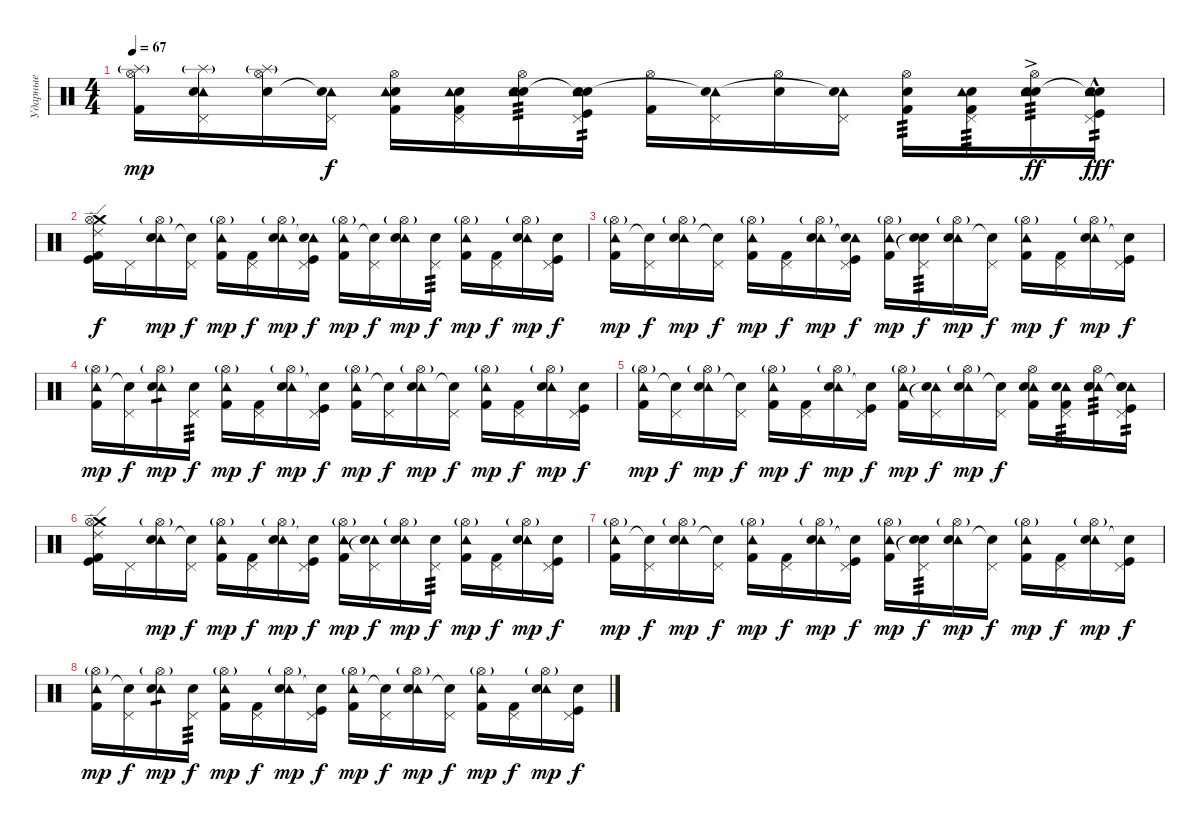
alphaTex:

\track ("Ударные" "Ударные") {instrument percussion}
\staff {score}
\articulation defaults
\ts (4 4)
\tempo 67
\clef neutral
\ks c
("Hi-Hat (open)" "Splash (hit)"{g} "Kick (hit) 2").16{dy mp} ("Pedal Hi-Hat (hit)" "Tambourine (hit)" "Splash (hit)"{g} "Snare (hit)"{t}).16 ("Hi-Hat (open)" "Splash (hit)"{g} "Snare (hit) 2").16 ("Pedal Hi-Hat (hit)" "Tambourine (hit)" "Snare (hit) 2"{t}).16{dy f} ("Hi-Hat (open)" "Snare (hit) 2" "Tambourine (hit)" "Kick (hit) 2").16 ("Pedal Hi-Hat (hit)" "Snare (hit) 2" "Tambourine (hit)" "Kick (hit) 2").16 ("Hi-Hat (open)" "Snare (hit) 2" "Tambourine (hit)" "Snare (hit) 2").16{tp 3} ("Pedal Hi-Hat (hit)" "Snare (hit) 2" "Tambourine (hit)" "Snare (hit) 2"{t} "Kick (hit)").16{tp 2} ("Hi-Hat (open)" "Kick (hit) 2").16 ("Pedal Hi-Hat (hit)" "Tambourine (hit)" "Snare (hit)"{t}).16 ("Hi-Hat (open)" "Snare (hit) 2").16 ("Pedal Hi-Hat (hit)" "Tambourine (hit)" "Snare (hit) 2"{t}).16 ("Hi-Hat (open)" "Electric Snare (hit)" "Kick (hit) 2").16{tp 3} ("Pedal Hi-Hat (hit)" "Electric Snare (hit)" "Tambourine (hit)" "Kick (hit) 2").16{tp 3} ("Hi-Hat (open)" "Electric Snare (hit)"{ac} "Tambourine (hit)" "Snare (hit) 2").16{tp 3 dy ff} ("Pedal Hi-Hat (hit)" "Electric Snare (hit)"{hac} "Tambourine (hit)" "Snare (hit) 2"{t} "Kick (hit)").16{tp 2 dy fff} |
("Crash medium (hit)" "Kick (hit) 2" "Kick (hit)" "Ride (edge) 2" "Hi-Hat (open)").16{dy f} "Pedal Hi-Hat (hit)".16 ("Hi-Hat (open)"{g} "Tambourine (hit)" "Snare (hit) 2").16{dy mp} ("Pedal Hi-Hat (hit)" "Snare (hit) 2"{t}).16{dy f} ("Hi-Hat (open)"{g} "Tambourine (hit)" "Kick (hit) 2").16{dy mp} ("Pedal Hi-Hat (hit)" "Kick (hit) 2").16{dy f} ("Hi-Hat (open)"{g} "Tambourine (hit)" "Snare (hit) 2").16{dy mp} ("Pedal Hi-Hat (hit)" "Tambourine (hit)" "Snare (hit) 2"{t} "Kick (hit)").16{dy f} ("Hi-Hat (open)"{g} "Tambourine (hit)" "Kick (hit) 2").16{dy mp} ("Pedal Hi-Hat (hit)" "Snare (hit)"{t}).16{dy f} ("Hi-Hat (open)"{g} "Tambourine (hit)" "Snare (hit) 2").16{dy mp} ("Pedal Hi-Hat (hit)" "Snare (hit) 2").16{tp 3 dy f} ("Hi-Hat (open)"{g} "Tambourine (hit)" "Kick (hit) 2").16{dy mp} ("Pedal Hi-Hat (hit)" "Kick (hit) 2").16{dy f} ("Hi-Hat (open)"{g} "Tambourine (hit)" "Snare (hit) 2").16{dy mp} ("Pedal Hi-Hat (hit)" "Snare (hit) 2" "Kick (hit)").16{dy f} |
("Hi-Hat (open)"{g} "Tambourine (hit)" "Kick (hit) 2").16{dy mp} ("Pedal Hi-Hat (hit)" "Snare (hit)"{t}).16{dy f} ("Hi-Hat (open)"{g} "Tambourine (hit)" "Snare (hit) 2").16{dy mp} ("Pedal Hi-Hat (hit)" "Snare (hit) 2"{t}).16{dy f} ("Hi-Hat (open)"{g} "Tambourine (hit)" "Kick (hit) 2").16{dy mp} ("Pedal Hi-Hat (hit)" "Kick (hit) 2").16{dy f} ("Hi-Hat (open)"{g} "Tambourine (hit)" "Snare (hit) 2").16{dy mp} ("Pedal Hi-Hat (hit)" "Tambourine (hit)" "Snare (hit) 2"{t} "Kick (hit)").16{dy f} ("Hi-Hat (open)"{g} "Tambourine (hit)" "Kick (hit) 2").16{dy mp} ("Pedal Hi-Hat (hit)" "Snare (hit) 2" "Snare (hit)"{t}).16{tp 3 dy f} ("Hi-Hat (open)"{g} "Tambourine (hit)" "Snare (hit) 2").16{dy mp} ("Pedal Hi-Hat (hit)" "Snare (hit) 2"{t}).16{dy f} ("Hi-Hat (open)"{g} "Tambourine (hit)" "Kick (hit) 2").16{dy mp} ("Pedal Hi-Hat (hit)" "Kick (hit) 2").16{dy f} ("Hi-Hat (open)"{g} "Tambourine (hit)" "Snare (hit) 2").16{dy mp} ("Pedal Hi-Hat (hit)" "Snare (hit) 2"{t} "Kick (hit)").16{dy f} |
("Hi-Hat (open)"{g} "Tambourine (hit)" "Kick (hit) 2").16{dy mp} ("Pedal Hi-Hat (hit)" "Snare (hit)"{t}).16{dy f} ("Hi-Hat (open)"{g} "Tambourine (hit)" "Snare (hit) 2").16{tp 1 dy mp} ("Pedal Hi-Hat (hit)" "Snare (hit) 2").16{tp 3 dy f} ("Hi-Hat (open)"{g} "Tambourine (hit)" "Kick (hit) 2").16{dy mp} ("Pedal Hi-Hat (hit)" "Kick (hit) 2").16{dy f} ("Hi-Hat (open)"{g} "Tambourine (hit)" "Snare (hit) 2").16{dy mp} ("Pedal Hi-Hat (hit)" "Snare (hit) 2"{t} "Kick (hit)").16{dy f} ("Hi-Hat (open)"{g} "Tambourine (hit)" "Kick (hit) 2").16{dy mp} ("Pedal Hi-Hat (hit)" "Snare (hit)"{t}).16{dy f} ("Hi-Hat (open)"{g} "Tambourine (hit)" "Snare (hit) 2").16{dy mp} ("Pedal Hi-Hat (hit)" "Snare (hit) 2"{t}).16{dy f} ("Hi-Hat (open)"{g} "Tambourine (hit)" "Kick (hit) 2").16{dy mp} ("Pedal Hi-Hat (hit)" "Kick (hit) 2").16{dy f} ("Hi-Hat (open)"{g} "Tambourine (hit)" "Electric Snare (hit)").16{dy mp} ("Pedal Hi-Hat (hit)" "Electric Snare (hit)" "Kick (hit)").16{dy f} |
("Hi-Hat (open)"{g} "Tambourine (hit)" "Kick (hit) 2").16{dy mp} ("Pedal Hi-Hat (hit)" "Snare (hit)"{t}).16{dy f} ("Hi-Hat (open)"{g} "Tambourine (hit)" "Snare (hit) 2").16{dy mp} ("Pedal Hi-Hat (hit)" "Snare (hit) 2"{t}).16{dy f} ("Hi-Hat (open)"{g} "Tambourine (hit)" "Kick (hit) 2").16{dy mp} ("Pedal Hi-Hat (hit)" "Kick (hit) 2").16{dy f} ("Hi-Hat (open)"{g} "Tambourine (hit)" "Electric Snare (hit)").16{dy mp} ("Pedal Hi-Hat (hit)" "Snare (hit) 2"{t} "Kick (hit)").16{dy f} ("Hi-Hat (open)"{g} "Tambourine (hit)" "Kick (hit) 2").16{dy mp} ("Pedal Hi-Hat (hit)" "Tambourine (hit)" "Snare (hit)"{t}).16{dy f} ("Hi-Hat (open)"{g} "Tambourine (hit)" "Snare (hit) 2").16{dy mp} ("Pedal Hi-Hat (hit)" "Snare (hit) 2"{t}).16{dy f} ("Hi-Hat (open)" "Tambourine (hit)" "Snare (hit) 2" "Kick (hit) 2").16 ("Pedal Hi-Hat (hit)" "Tambourine (hit)" "Snare (hit) 2" "Kick (hit) 2").16{tp 3} ("Hi-Hat (open)" "Tambourine (hit)" "Snare (hit) 2" "Snare (hit) 2").16{tp 3} ("Pedal Hi-Hat (hit)" "Tambourine (hit)" "Snare (hit) 2" "Snare (hit) 2"{t} "Kick (hit)").16{tp 2} |
("Crash medium (hit)" "Kick (hit) 2" "Kick (hit)" "Ride (edge) 2" "Hi-Hat (open)").16 "Pedal Hi-Hat (hit)".16 ("Hi-Hat (open)"{g} "Tambourine (hit)" "Snare (hit) 2").16{dy mp} ("Pedal Hi-Hat (hit)" "Snare (hit) 2"{t}).16{dy f} ("Hi-Hat (open)"{g} "Tambourine (hit)" "Kick (hit) 2").16{dy mp} ("Pedal Hi-Hat (hit)" "Kick (hit) 2").16{dy f} ("Hi-Hat (open)"{g} "Tambourine (hit)" "Electric Snare (hit)").16{dy mp} ("Pedal Hi-Hat (hit)" "Snare (hit) 2"{t} "Kick (hit)").16{dy f} ("Hi-Hat (open)"{g} "Tambourine (hit)" "Kick (hit) 2").16{dy mp} ("Pedal Hi-Hat (hit)" "Tambourine (hit)" "Snare (hit)"{t}).16{dy f} ("Hi-Hat (open)"{g} "Tambourine (hit)" "Electric Snare (hit)").16{dy mp} ("Pedal Hi-Hat (hit)" "Snare (hit) 2").16{tp 3 dy f} ("Hi-Hat (open)"{g} "Tambourine (hit)" "Kick (hit) 2").16{dy mp} ("Pedal Hi-Hat (hit)" "Kick (hit) 2").16{dy f} ("Hi-Hat (open)"{g} "Tambourine (hit)" "Snare (hit) 2").16{dy mp} ("Pedal Hi-Hat (hit)" "Snare (hit) 2" "Kick (hit)").16{dy f} |
("Hi-Hat (open)"{g} "Tambourine (hit)" "Kick (hit) 2").16{dy mp} ("Pedal Hi-Hat (hit)" "Snare (hit)"{t}).16{dy f} ("Hi-Hat (open)"{g} "Tambourine (hit)" "Snare (hit) 2").16{dy mp} ("Pedal Hi-Hat (hit)" "Snare (hit) 2"{t}).16{dy f} ("Hi-Hat (open)"{g} "Tambourine (hit)" "Kick (hit) 2").16{dy mp} ("Pedal Hi-Hat (hit)" "Kick (hit) 2").16{dy f} ("Hi-Hat (open)"{g} "Tambourine (hit)" "Electric Snare (hit)").16{dy mp} ("Pedal Hi-Hat (hit)" "Snare (hit) 2"{t} "Kick (hit)").16{dy f} ("Hi-Hat (open)"{g} "Tambourine (hit)" "Kick (hit) 2").16{dy mp} ("Pedal Hi-Hat (hit)" "Snare (hit) 2" "Snare (hit)"{t}).16{tp 3 dy f} ("Hi-Hat (open)"{g} "Tambourine (hit)" "Electric Snare (hit)").16{dy mp} ("Pedal Hi-Hat (hit)" "Snare (hit) 2"{t}).16{dy f} ("Hi-Hat (open)"{g} "Tambourine (hit)" "Kick (hit) 2").16{dy mp} ("Pedal Hi-Hat (hit)" "Kick (hit) 2").16{dy f} ("Hi-Hat (open)"{g} "Tambourine (hit)" "Snare (hit) 2").16{dy mp} ("Pedal Hi-Hat (hit)" "Snare (hit) 2"{t} "Kick (hit)").16{dy f} |
("Hi-Hat (open)"{g} "Tambourine (hit)" "Kick (hit) 2").16{dy mp} ("Pedal Hi-Hat (hit)" "Snare (hit)"{t}).16{dy f} ("Hi-Hat (open)"{g} "Tambourine (hit)" "Snare (hit) 2").16{tp 1 dy mp} ("Pedal Hi-Hat (hit)" "Snare (hit) 2").16{tp 3 dy f} ("Hi-Hat (open)"{g} "Tambourine (hit)" "Kick (hit) 2").16{dy mp} ("Pedal Hi-Hat (hit)" "Kick (hit) 2").16{dy f} ("Hi-Hat (open)"{g} "Tambourine (hit)" "Electric Snare (hit)").16{dy mp} ("Pedal Hi-Hat (hit)" "Snare (hit) 2"{t} "Kick (hit)").16{dy f} ("Hi-Hat (open)"{g} "Tambourine (hit)" "Kick (hit) 2").16{dy mp} ("Pedal Hi-Hat (hit)" "Snare (hit)"{t}).16{dy f} ("Hi-Hat (open)"{g} "Tambourine (hit)" "Snare (hit) 2").16{dy mp} ("Pedal Hi-Hat (hit)" "Snare (hit) 2"{t}).16{dy f} ("Hi-Hat (open)"{g} "Tambourine (hit)" "Kick (hit) 2").16{dy mp} ("Pedal Hi-Hat (hit)" "Kick (hit) 2").16{dy f} ("Hi-Hat (open)"{g} "Tambourine (hit)" "Electric Snare (hit)").16{dy mp} ("Pedal Hi-Hat (hit)" "Electric Snare (hit)" "Kick (hit)").16{dy f}
